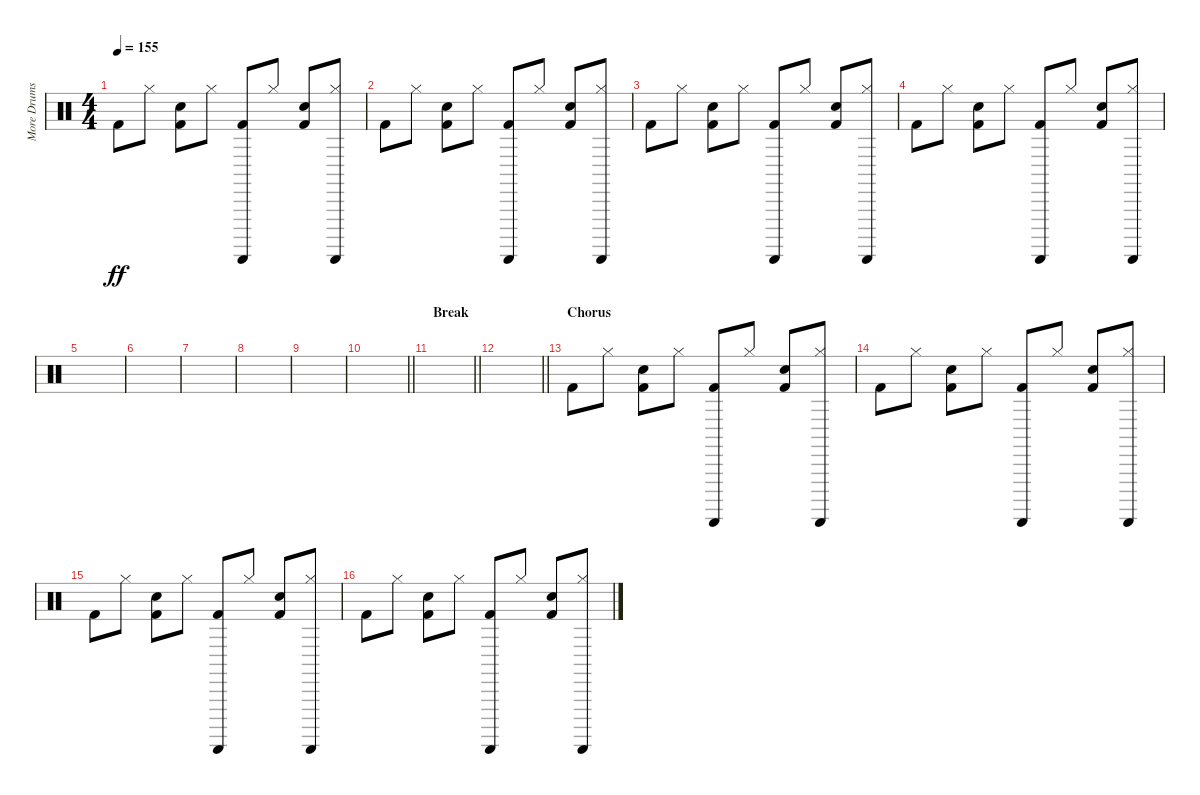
\track ("More Drums" "More Drums") {instrument percussion}
\staff {score}
\articulation defaults
\ts (4 4)
\tempo 155
\clef neutral
\ks c "Kick (hit) 2".8{dy ff} "Hi-Hat (closed)".8
("Kick (hit) 2" "Electric Snare (hit)").8 "Hi-Hat (closed)".8 ("Kick (hit) 2" "Guiro (scrap-return)").8 "Hi-Hat (closed)".8 ("Kick (hit) 2" "Electric Snare (hit)").8 ("Hi-Hat (closed)" "Guiro (scrap-return)").8 |
"Kick (hit) 2".8 "Hi-Hat (closed)".8 ("Kick (hit) 2" "Electric Snare (hit)").8 "Hi-Hat (closed)".8 ("Kick (hit) 2" "Guiro (scrap-return)").8 "Hi-Hat (closed)".8 ("Kick (hit) 2" "Electric Snare (hit)").8 ("Hi-Hat (closed)" "Guiro (scrap-return)").8 |
"Kick (hit) 2".8 "Hi-Hat (closed)".8 ("Kick (hit) 2" "Electric Snare (hit)").8 "Hi-Hat (closed)".8 ("Kick (hit) 2" "Guiro (scrap-return)").8 "Hi-Hat (closed)".8 ("Kick (hit) 2" "Electric Snare (hit)").8 ("Hi-Hat (closed)" "Guiro (scrap-return)").8 |
"Kick (hit) 2".8 "Hi-Hat (closed)".8 ("Kick (hit) 2" "Electric Snare (hit)").8 "Hi-Hat (closed)".8 ("Kick (hit) 2" "Guiro (scrap-return)").8 "Hi-Hat (closed)".8 ("Kick (hit) 2" "Electric Snare (hit)").8 ("Hi-Hat (closed)" "Guiro (scrap-return)").8 |
|
|
|
|
|
\barLineRight lightlight
|
\section ("" "Break")
\barLineRight lightlight
|
\barLineRight lightlight
|
\section ("" "Chorus")
"Kick (hit) 2".8 "Hi-Hat (closed)".8 ("Kick (hit) 2" "Electric Snare (hit)").8 "Hi-Hat (closed)".8 ("Kick (hit) 2" "Guiro (scrap-return)").8 "Hi-Hat (closed)".8 ("Kick (hit) 2" "Electric Snare (hit)").8 ("Hi-Hat (closed)" "Guiro (scrap-return)").8 |
"Kick (hit) 2".8 "Hi-Hat (closed)".8 ("Kick (hit) 2" "Electric Snare (hit)").8 "Hi-Hat (closed)".8 ("Kick (hit) 2" "Guiro (scrap-return)").8 "Hi-Hat (closed)".8 ("Kick (hit) 2" "Electric Snare (hit)").8 ("Hi-Hat (closed)" "Guiro (scrap-return)").8 |
"Kick (hit) 2".8 "Hi-Hat (closed)".8 ("Kick (hit) 2" "Electric Snare (hit)").8 "Hi-Hat (closed)".8 ("Kick (hit) 2" "Guiro (scrap-return)").8 "Hi-Hat (closed)".8 ("Kick (hit) 2" "Electric Snare (hit)").8 ("Hi-Hat (closed)" "Guiro (scrap-return)").8 |
"Kick (hit) 2".8 "Hi-Hat (closed)".8 ("Kick (hit) 2" "Electric Snare (hit)").8 "Hi-Hat (closed)".8 ("Kick (hit) 2" "Guiro (scrap-return)").8 "Hi-Hat (closed)".8 ("Kick (hit) 2" "Electric Snare (hit)").8 ("Hi-Hat (closed)" "Guiro (scrap-return)").8
